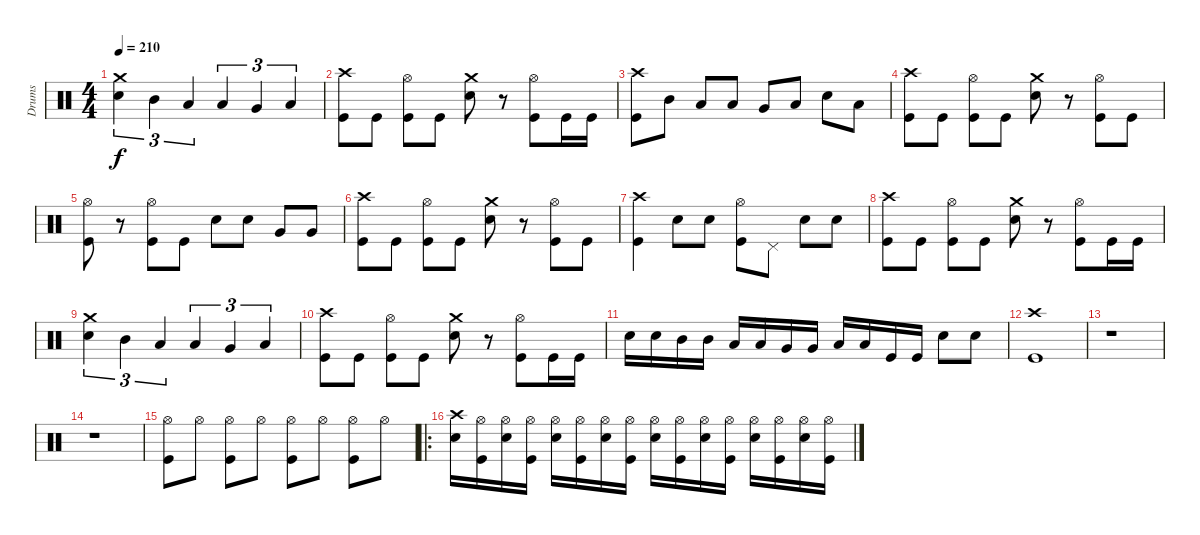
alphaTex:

\track ("Drums" "Drums") {instrument percussion}
\staff {score}
\articulation defaults
\ts (4 4)
\tempo 210
\clef neutral
\ks c
("Crash medium (hit)" "Snare (hit) 2").4{tu (3 2) dy f} "Mid Tom (hit)".4{tu (3 2)} "Low Tom (hit)".4{tu (3 2)} "Low Tom (hit)".4{tu (3 2)} "Very Low Tom (hit)".4{tu (3 2)} "Low Floor Tom (hit)".4{tu (3 2)} |
("Crash high (hit)" "Kick (hit)").8 "Kick (hit)".8 ("Hi-Hat (open)" "Kick (hit)").8 "Kick (hit)".8 ("Crash medium (hit)" "Snare (hit) 2").8 r.8 ("Hi-Hat (open)" "Kick (hit)").8 "Kick (hit)".16 "Kick (hit)".16 |
("Crash high (hit)" "Kick (hit)").8 "Mid Tom (hit)".8 "Low Tom (hit)".8 "Low Tom (hit)".8 "Very Low Tom (hit)".8 "Low Floor Tom (hit)".8 "Snare (hit) 2".8 "Low Floor Tom (hit)".8 |
("Crash high (hit)" "Kick (hit)").8 "Kick (hit)".8 ("Hi-Hat (open)" "Kick (hit)").8 "Kick (hit)".8 ("Crash medium (hit)" "Snare (hit) 2").8 r.8 ("Hi-Hat (open)" "Kick (hit)").8 "Kick (hit)".8 |
("Hi-Hat (open)" "Kick (hit)").8 r.8 ("Hi-Hat (open)" "Kick (hit)").8 "Kick (hit)".8 "Snare (hit) 2".8 "Snare (hit) 2".8 "Very Low Tom (hit)".8 "Very Low Tom (hit)".8 |
("Crash high (hit)" "Kick (hit)").8 "Kick (hit)".8 ("Hi-Hat (open)" "Kick (hit)").8 "Kick (hit)".8 ("Crash medium (hit)" "Snare (hit) 2").8 r.8 ("Hi-Hat (open)" "Kick (hit)").8 "Kick (hit)".8 |
("Crash high (hit)" "Kick (hit)").4 "Snare (hit) 2".8 "Snare (hit) 2".8 ("Hi-Hat (open)" "Kick (hit)").8 "Pedal Hi-Hat (hit)".8 "Snare (hit) 2".8 "Snare (hit) 2".8 |
("Crash high (hit)" "Kick (hit)").8 "Kick (hit)".8 ("Hi-Hat (open)" "Kick (hit)").8 "Kick (hit)".8 ("Crash medium (hit)" "Snare (hit) 2").8 r.8 ("Hi-Hat (open)" "Kick (hit)").8 "Kick (hit)".16 "Kick (hit)".16 |
("Crash medium (hit)" "Snare (hit) 2").4{tu (3 2)} "Mid Tom (hit)".4{tu (3 2)} "Low Tom (hit)".4{tu (3 2)} "Low Tom (hit)".4{tu (3 2)} "Very Low Tom (hit)".4{tu (3 2)} "Low Floor Tom (hit)".4{tu (3 2)} |
("Crash high (hit)" "Kick (hit)").8 "Kick (hit)".8 ("Hi-Hat (open)" "Kick (hit)").8 "Kick (hit)".8 ("Crash medium (hit)" "Snare (hit) 2").8 r.8 ("Hi-Hat (open)" "Kick (hit)").8 "Kick (hit)".16 "Kick (hit)".16 |
"Snare (hit) 2".16 "Snare (hit) 2".16 "Mid Tom (hit)".16 "Mid Tom (hit)".16 "Low Tom (hit)".16 "Low Tom (hit)".16 "Very Low Tom (hit)".16 "Very Low Tom (hit)".16 "Low Floor Tom (hit)".16 "Low Floor Tom (hit)".16 "Kick (hit)".16 "Kick (hit)".16 "Snare (hit) 2".8 "Snare (hit) 2".8 |
("Crash high (hit)" "Kick (hit)").1 |
r.1 |
r.1 |
("Hi-Hat (open)" "Kick (hit)").8 "Hi-Hat (open)".8 ("Hi-Hat (open)" "Kick (hit)").8 "Hi-Hat (open)".8 ("Hi-Hat (open)" "Kick (hit)").8 "Hi-Hat (open)".8 ("Hi-Hat (open)" "Kick (hit)").8 "Hi-Hat (open)".8 |
\ro
("Crash high (hit)" "Snare (hit) 2").16 ("Hi-Hat (open)" "Kick (hit)").16 ("Hi-Hat (open)" "Snare (hit) 2").16 ("Hi-Hat (open)" "Kick (hit)").16 ("Hi-Hat (open)" "Snare (hit) 2").16 ("Hi-Hat (open)" "Kick (hit)").16 ("Hi-Hat (open)" "Snare (hit) 2").16 ("Hi-Hat (open)" "Kick (hit)").16 ("Hi-Hat (open)" "Snare (hit) 2").16 ("Hi-Hat (open)" "Kick (hit)").16 ("Hi-Hat (open)" "Snare (hit) 2").16 ("Hi-Hat (open)" "Kick (hit)").16 ("Hi-Hat (open)" "Snare (hit) 2").16 ("Hi-Hat (open)" "Kick (hit)").16 ("Hi-Hat (open)" "Snare (hit) 2").16 ("Hi-Hat (open)" "Kick (hit)").16
